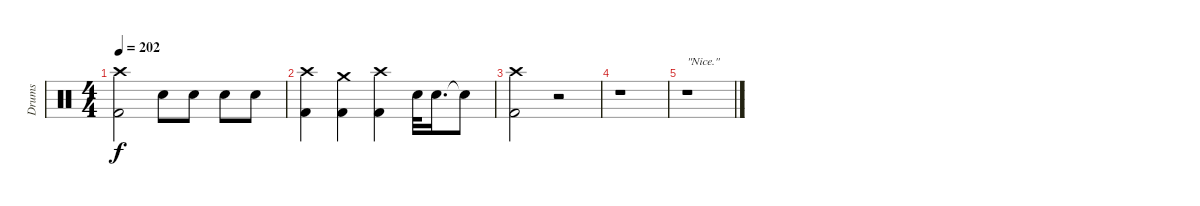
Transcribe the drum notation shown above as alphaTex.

\track ("Drums" "Drums") {instrument percussion}
\staff {score}
\articulation defaults
\ts (4 4)
\tempo 202
\clef neutral
\ks c
("Crash high (hit)" "Kick (hit) 2").2{dy f} "Electric Snare (hit)".8 "Electric Snare (hit)".8 "Electric Snare (hit)".8 "Electric Snare (hit)".8 |
("Crash high (hit)" "Kick (hit) 2").4 ("Crash medium (hit)" "Kick (hit) 2").4 ("Crash high (hit)" "Kick (hit) 2").4 "Electric Snare (hit)".32 "Electric Snare (hit)".16{d} "Electric Snare (hit)"{t}.8 |
("Crash high (hit)" "Kick (hit) 2").2 r.2 |
r.1 |
r.1{txt "\"Nice.\""}
